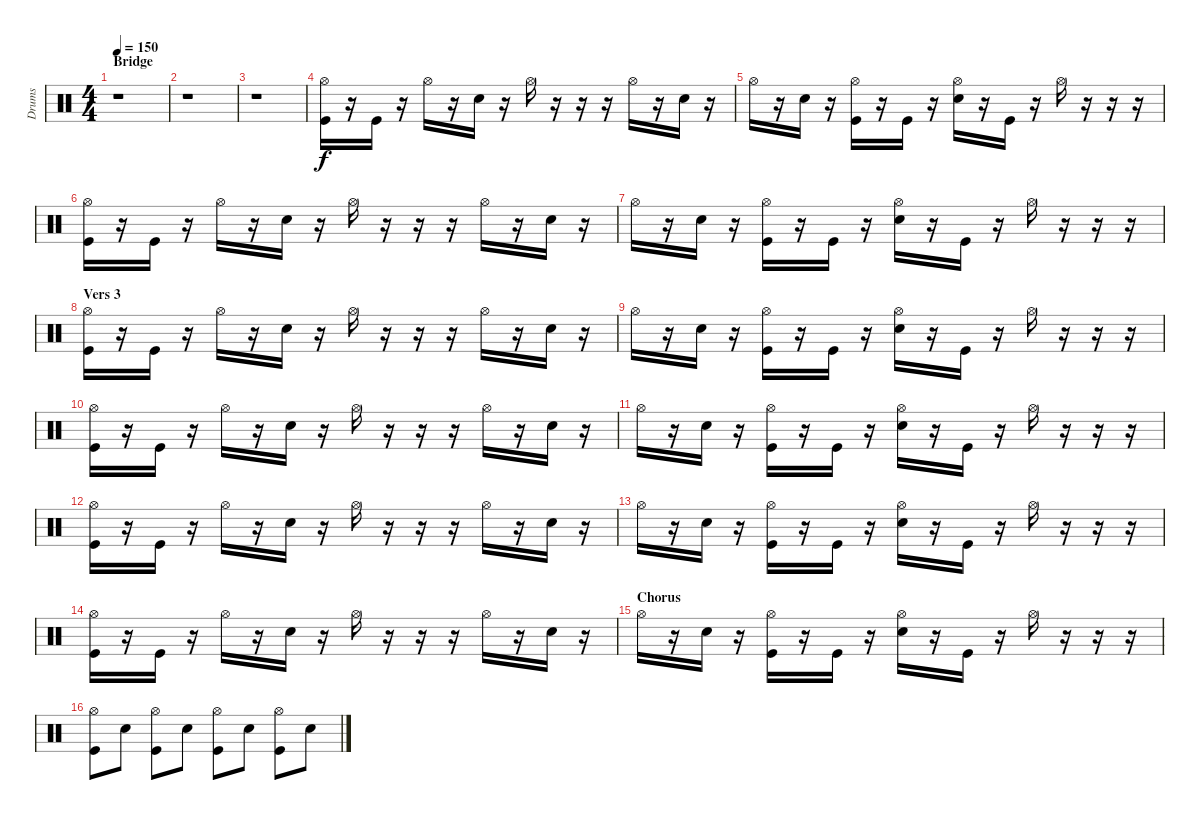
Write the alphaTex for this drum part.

\track ("Drums" "Drums") {instrument percussion}
\staff {score}
\articulation defaults
\ts (4 4)
\section ("" "Bridge")
\tempo 150
\clef neutral
\ks c
r.1{dy f} |
r.1 |
r.1 |
("Hi-Hat (open)" "Kick (hit)").16 r.16 "Kick (hit)".16 r.16 "Hi-Hat (open)".16 r.16 "Electric Snare (hit)".16 r.16 "Hi-Hat (open)".16 r.16 r.16 r.16 "Hi-Hat (open)".16 r.16 "Electric Snare (hit)".16 r.16 |
"Hi-Hat (open)".16 r.16 "Electric Snare (hit)".16 r.16 ("Hi-Hat (open)" "Kick (hit)").16 r.16 "Kick (hit)".16 r.16 ("Hi-Hat (open)" "Electric Snare (hit)").16 r.16 "Kick (hit)".16 r.16 "Hi-Hat (open)".16 r.16 r.16 r.16 |
("Hi-Hat (open)" "Kick (hit)").16 r.16 "Kick (hit)".16 r.16 "Hi-Hat (open)".16 r.16 "Electric Snare (hit)".16 r.16 "Hi-Hat (open)".16 r.16 r.16 r.16 "Hi-Hat (open)".16 r.16 "Electric Snare (hit)".16 r.16 |
"Hi-Hat (open)".16 r.16 "Electric Snare (hit)".16 r.16 ("Hi-Hat (open)" "Kick (hit)").16 r.16 "Kick (hit)".16 r.16 ("Hi-Hat (open)" "Electric Snare (hit)").16 r.16 "Kick (hit)".16 r.16 "Hi-Hat (open)".16 r.16 r.16 r.16 |
\section ("" "Vers 3")
("Hi-Hat (open)" "Kick (hit)").16 r.16 "Kick (hit)".16 r.16 "Hi-Hat (open)".16 r.16 "Electric Snare (hit)".16 r.16 "Hi-Hat (open)".16 r.16 r.16 r.16 "Hi-Hat (open)".16 r.16 "Electric Snare (hit)".16 r.16 |
"Hi-Hat (open)".16 r.16 "Electric Snare (hit)".16 r.16 ("Hi-Hat (open)" "Kick (hit)").16 r.16 "Kick (hit)".16 r.16 ("Hi-Hat (open)" "Electric Snare (hit)").16 r.16 "Kick (hit)".16 r.16 "Hi-Hat (open)".16 r.16 r.16 r.16 |
("Hi-Hat (open)" "Kick (hit)").16 r.16 "Kick (hit)".16 r.16 "Hi-Hat (open)".16 r.16 "Electric Snare (hit)".16 r.16 "Hi-Hat (open)".16 r.16 r.16 r.16 "Hi-Hat (open)".16 r.16 "Electric Snare (hit)".16 r.16 |
"Hi-Hat (open)".16 r.16 "Electric Snare (hit)".16 r.16 ("Hi-Hat (open)" "Kick (hit)").16 r.16 "Kick (hit)".16 r.16 ("Hi-Hat (open)" "Electric Snare (hit)").16 r.16 "Kick (hit)".16 r.16 "Hi-Hat (open)".16 r.16 r.16 r.16 |
("Hi-Hat (open)" "Kick (hit)").16 r.16 "Kick (hit)".16 r.16 "Hi-Hat (open)".16 r.16 "Electric Snare (hit)".16 r.16 "Hi-Hat (open)".16 r.16 r.16 r.16 "Hi-Hat (open)".16 r.16 "Electric Snare (hit)".16 r.16 |
"Hi-Hat (open)".16 r.16 "Electric Snare (hit)".16 r.16 ("Hi-Hat (open)" "Kick (hit)").16 r.16 "Kick (hit)".16 r.16 ("Hi-Hat (open)" "Electric Snare (hit)").16 r.16 "Kick (hit)".16 r.16 "Hi-Hat (open)".16 r.16 r.16 r.16 |
("Hi-Hat (open)" "Kick (hit)").16 r.16 "Kick (hit)".16 r.16 "Hi-Hat (open)".16 r.16 "Electric Snare (hit)".16 r.16 "Hi-Hat (open)".16 r.16 r.16 r.16 "Hi-Hat (open)".16 r.16 "Electric Snare (hit)".16 r.16 |
\section ("" "Chorus")
"Hi-Hat (open)".16 r.16 "Electric Snare (hit)".16 r.16 ("Hi-Hat (open)" "Kick (hit)").16 r.16 "Kick (hit)".16 r.16 ("Hi-Hat (open)" "Electric Snare (hit)").16 r.16 "Kick (hit)".16 r.16 "Hi-Hat (open)".16 r.16 r.16 r.16 |
("Hi-Hat (open)" "Kick (hit)").8 "Electric Snare (hit)".8 ("Hi-Hat (open)" "Kick (hit)").8 "Electric Snare (hit)".8 ("Hi-Hat (open)" "Kick (hit)").8 "Electric Snare (hit)".8 ("Hi-Hat (open)" "Kick (hit)").8 "Electric Snare (hit)".8
